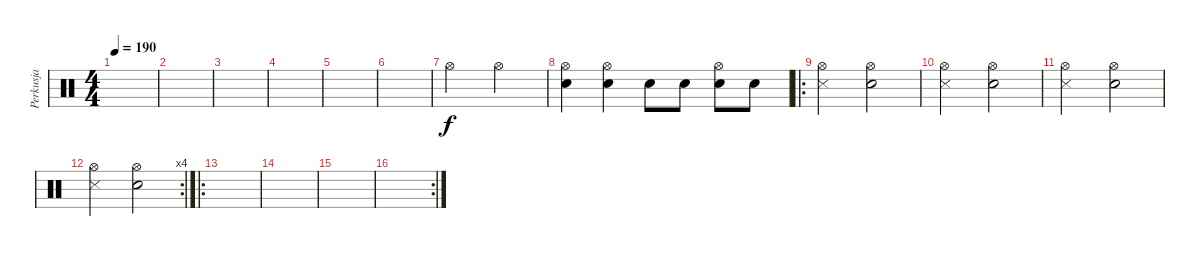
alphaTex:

\track ("Perkusja" "Perkusja") {instrument percussion}
\staff {score}
\articulation defaults
\ts (4 4)
\tempo 190
\clef neutral
\ks c
|
|
|
|
|
|
"Hi-Hat (open)".2 "Hi-Hat (open)".2 |
("Hi-Hat (open)" "Electric Snare (hit)").4 ("Hi-Hat (open)" "Electric Snare (hit)").4 "Electric Snare (hit)".8 "Electric Snare (hit)".8 ("Hi-Hat (open)" "Electric Snare (hit)").8 "Electric Snare (hit)".8 |
\ro
("Hi-Hat (open)" "Metronome (hit)").2 ("Hi-Hat (open)" "Electric Snare (hit)").2 |
("Hi-Hat (open)" "Metronome (hit)").2 ("Hi-Hat (open)" "Electric Snare (hit)").2 |
("Hi-Hat (open)" "Metronome (hit)").2 ("Hi-Hat (open)" "Electric Snare (hit)").2 |
\rc 4
("Hi-Hat (open)" "Metronome (hit)").2 ("Hi-Hat (open)" "Electric Snare (hit)").2 |
\ro
|
|
|
\rc 2
